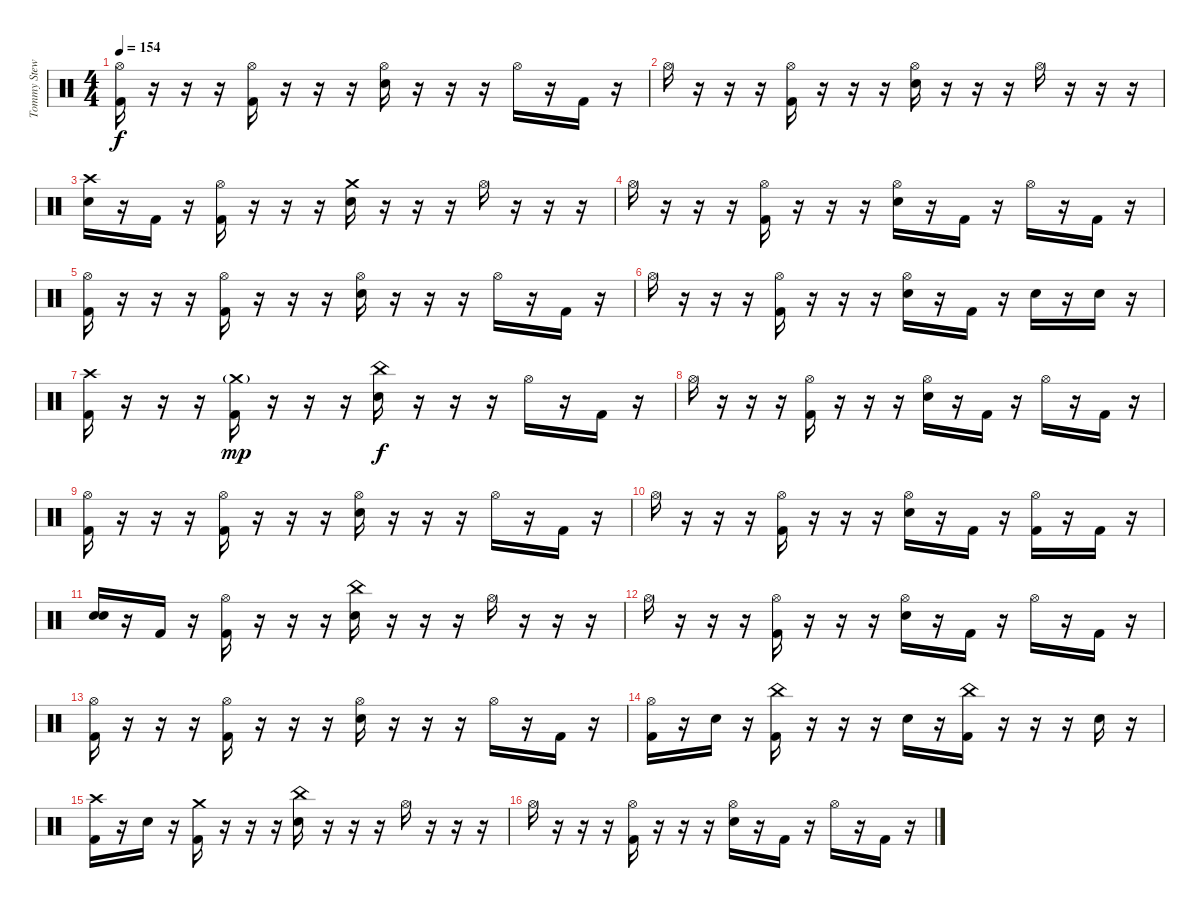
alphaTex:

\track ("Tommy Stewart" "Tommy Stew") {instrument percussion}
\staff {score}
\articulation defaults
\ts (4 4)
\tempo 154
\clef neutral
\ks c
("Hi-Hat (open)" "Kick (hit) 2").16{dy f} r.16 r.16 r.16 ("Hi-Hat (open)" "Kick (hit) 2").16 r.16 r.16 r.16 ("Hi-Hat (open)" "Snare (hit) 2").16 r.16 r.16 r.16 "Hi-Hat (open)".16 r.16 "Kick (hit) 2".16 r.16 |
"Hi-Hat (open)".16 r.16 r.16 r.16 ("Hi-Hat (open)" "Kick (hit) 2").16 r.16 r.16 r.16 ("Hi-Hat (open)" "Snare (hit) 2").16 r.16 r.16 r.16 "Hi-Hat (open)".16 r.16 r.16 r.16 |
("Crash high (hit)" "Snare (hit) 2").16 r.16 "Kick (hit) 2".16 r.16 ("Hi-Hat (open)" "Kick (hit) 2").16 r.16 r.16 r.16 ("Crash medium (hit)" "Snare (hit) 2").16 r.16 r.16 r.16 "Hi-Hat (open)".16 r.16 r.16 r.16 |
"Hi-Hat (open)".16 r.16 r.16 r.16 ("Hi-Hat (open)" "Kick (hit) 2").16 r.16 r.16 r.16 ("Hi-Hat (open)" "Snare (hit) 2").16 r.16 "Kick (hit) 2".16 r.16 "Hi-Hat (open)".16 r.16 "Kick (hit) 2".16 r.16 |
("Hi-Hat (open)" "Kick (hit) 2").16 r.16 r.16 r.16 ("Hi-Hat (open)" "Kick (hit) 2").16 r.16 r.16 r.16 ("Hi-Hat (open)" "Snare (hit) 2").16 r.16 r.16 r.16 "Hi-Hat (open)".16 r.16 "Kick (hit) 2".16 r.16 |
"Hi-Hat (open)".16 r.16 r.16 r.16 ("Hi-Hat (open)" "Kick (hit) 2").16 r.16 r.16 r.16 ("Hi-Hat (open)" "Snare (hit) 2").16 r.16 "Kick (hit) 2".16 r.16 "Snare (hit) 2".16 r.16 "Snare (hit) 2".16 r.16 |
("Crash high (hit)" "Kick (hit) 2").16 r.16 r.16 r.16 ("Crash medium (hit)"{g} "Kick (hit) 2").16{dy mp} r.16 r.16 r.16 ("China (hit)" "Snare (hit) 2").16{dy f} r.16 r.16 r.16 "Hi-Hat (open)".16 r.16 "Kick (hit) 2".16 r.16 |
"Hi-Hat (open)".16 r.16 r.16 r.16 ("Hi-Hat (open)" "Kick (hit) 2").16 r.16 r.16 r.16 ("Hi-Hat (open)" "Snare (hit) 2").16 r.16 "Kick (hit) 2".16 r.16 "Hi-Hat (open)".16 r.16 "Kick (hit) 2".16 r.16 |
("Hi-Hat (open)" "Kick (hit) 2").16 r.16 r.16 r.16 ("Hi-Hat (open)" "Kick (hit) 2").16 r.16 r.16 r.16 ("Hi-Hat (open)" "Snare (hit) 2").16 r.16 r.16 r.16 "Hi-Hat (open)".16 r.16 "Kick (hit) 2".16 r.16 |
"Hi-Hat (open)".16 r.16 r.16 r.16 ("Hi-Hat (open)" "Kick (hit) 2").16 r.16 r.16 r.16 ("Hi-Hat (open)" "Snare (hit) 2").16 r.16 "Kick (hit) 2".16 r.16 ("Hi-Hat (open)" "Kick (hit) 2").16 r.16 "Kick (hit) 2".16 r.16 |
("Snare (hit) 2" "Snare (hit) 2").16 r.16 "Kick (hit) 2".16 r.16 ("Hi-Hat (open)" "Kick (hit) 2").16 r.16 r.16 r.16 ("China (hit)" "Snare (hit) 2").16 r.16 r.16 r.16 "Hi-Hat (open)".16 r.16 r.16 r.16 |
"Hi-Hat (open)".16 r.16 r.16 r.16 ("Hi-Hat (open)" "Kick (hit) 2").16 r.16 r.16 r.16 ("Hi-Hat (open)" "Snare (hit) 2").16 r.16 "Kick (hit) 2".16 r.16 "Hi-Hat (open)".16 r.16 "Kick (hit) 2".16 r.16 |
("Hi-Hat (open)" "Kick (hit) 2").16 r.16 r.16 r.16 ("Hi-Hat (open)" "Kick (hit) 2").16 r.16 r.16 r.16 ("Hi-Hat (open)" "Snare (hit) 2").16 r.16 r.16 r.16 "Hi-Hat (open)".16 r.16 "Kick (hit) 2".16 r.16 |
("Hi-Hat (open)" "Kick (hit) 2").16 r.16 "Snare (hit) 2".16 r.16 ("China (hit)" "Kick (hit) 2").16 r.16 r.16 r.16 "Snare (hit) 2".16 r.16 ("China (hit)" "Kick (hit) 2").16 r.16 r.16 r.16 "Snare (hit) 2".16 r.16 |
("Crash high (hit)" "Kick (hit) 2").16 r.16 "Snare (hit) 2".16 r.16 ("Crash medium (hit)" "Kick (hit) 2").16 r.16 r.16 r.16 ("China (hit)" "Snare (hit) 2").16 r.16 r.16 r.16 "Hi-Hat (open)".16 r.16 r.16 r.16 |
"Hi-Hat (open)".16 r.16 r.16 r.16 ("Hi-Hat (open)" "Kick (hit) 2").16 r.16 r.16 r.16 ("Hi-Hat (open)" "Snare (hit) 2").16 r.16 "Kick (hit) 2".16 r.16 "Hi-Hat (open)".16 r.16 "Kick (hit) 2".16 r.16
